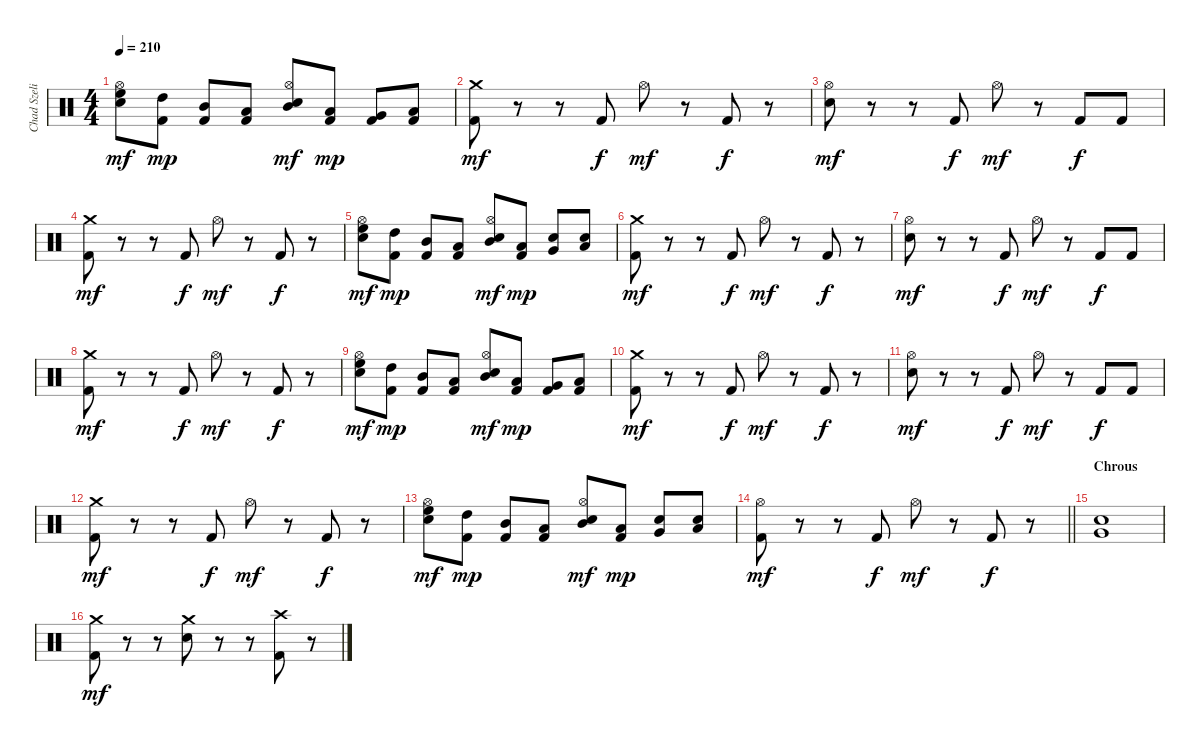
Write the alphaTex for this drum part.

\track ("Chad Szeliga" "Chad Szeli") {instrument percussion}
\staff {score}
\articulation defaults
\ts (4 4)
\tempo 210
\clef neutral
\ks c
("Snare (hit) 2" "High Floor Tom (hit)" "Hi-Hat (open)").8{dy mf} ("Kick (hit) 2" "High Tom (hit)").8{dy mp} ("Kick (hit) 2" "Mid Tom (hit)").8 ("Kick (hit) 2" "Low Tom (hit)").8 ("Snare (hit) 2" "Mid Tom (hit)" "Hi-Hat (open)").8{dy mf} ("Kick (hit) 2" "Low Tom (hit)").8{dy mp} ("Kick (hit) 2" "Very Low Tom (hit)").8 ("Kick (hit) 2" "Low Floor Tom (hit)").8 |
("Kick (hit) 2" "Crash medium (hit)").8{dy mf} r.8 r.8 "Kick (hit) 2".8{dy f} "Hi-Hat (open)".8{dy mf} r.8 "Kick (hit) 2".8{dy f} r.8 |
("Snare (hit) 2" "Hi-Hat (open)").8{dy mf} r.8 r.8 "Kick (hit) 2".8{dy f} "Hi-Hat (open)".8{dy mf} r.8 "Kick (hit) 2".8{dy f} "Kick (hit) 2".8 |
("Kick (hit) 2" "Crash medium (hit)").8{dy mf} r.8 r.8 "Kick (hit) 2".8{dy f} "Hi-Hat (open)".8{dy mf} r.8 "Kick (hit) 2".8{dy f} r.8 |
("Snare (hit) 2" "High Floor Tom (hit)" "Hi-Hat (open)").8{dy mf} ("Kick (hit) 2" "High Tom (hit)").8{dy mp} ("Kick (hit) 2" "Mid Tom (hit)").8 ("Kick (hit) 2" "Low Tom (hit)").8 ("Snare (hit) 2" "Mid Tom (hit)" "Hi-Hat (open)").8{dy mf} ("Kick (hit) 2" "Low Tom (hit)").8{dy mp} ("Snare (hit) 2" "Very Low Tom (hit)").8 ("Snare (hit) 2" "Low Floor Tom (hit)").8 |
("Kick (hit) 2" "Crash medium (hit)").8{dy mf} r.8 r.8 "Kick (hit) 2".8{dy f} "Hi-Hat (open)".8{dy mf} r.8 "Kick (hit) 2".8{dy f} r.8 |
("Snare (hit) 2" "Hi-Hat (open)").8{dy mf} r.8 r.8 "Kick (hit) 2".8{dy f} "Hi-Hat (open)".8{dy mf} r.8 "Kick (hit) 2".8{dy f} "Kick (hit) 2".8 |
("Kick (hit) 2" "Crash medium (hit)").8{dy mf} r.8 r.8 "Kick (hit) 2".8{dy f} "Hi-Hat (open)".8{dy mf} r.8 "Kick (hit) 2".8{dy f} r.8 |
("Snare (hit) 2" "High Floor Tom (hit)" "Hi-Hat (open)").8{dy mf} ("Kick (hit) 2" "High Tom (hit)").8{dy mp} ("Kick (hit) 2" "Mid Tom (hit)").8 ("Kick (hit) 2" "Low Tom (hit)").8 ("Snare (hit) 2" "Mid Tom (hit)" "Hi-Hat (open)").8{dy mf} ("Kick (hit) 2" "Low Tom (hit)").8{dy mp} ("Kick (hit) 2" "Very Low Tom (hit)").8 ("Kick (hit) 2" "Low Floor Tom (hit)").8 |
("Kick (hit) 2" "Crash medium (hit)").8{dy mf} r.8 r.8 "Kick (hit) 2".8{dy f} "Hi-Hat (open)".8{dy mf} r.8 "Kick (hit) 2".8{dy f} r.8 |
("Snare (hit) 2" "Hi-Hat (open)").8{dy mf} r.8 r.8 "Kick (hit) 2".8{dy f} "Hi-Hat (open)".8{dy mf} r.8 "Kick (hit) 2".8{dy f} "Kick (hit) 2".8 |
("Kick (hit) 2" "Crash medium (hit)").8{dy mf} r.8 r.8 "Kick (hit) 2".8{dy f} "Hi-Hat (open)".8{dy mf} r.8 "Kick (hit) 2".8{dy f} r.8 |
("Snare (hit) 2" "High Floor Tom (hit)" "Hi-Hat (open)").8{dy mf} ("Kick (hit) 2" "High Tom (hit)").8{dy mp} ("Kick (hit) 2" "Mid Tom (hit)").8 ("Kick (hit) 2" "Low Tom (hit)").8 ("Snare (hit) 2" "Mid Tom (hit)" "Hi-Hat (open)").8{dy mf} ("Kick (hit) 2" "Low Tom (hit)").8{dy mp} ("Snare (hit) 2" "Very Low Tom (hit)").8 ("Snare (hit) 2" "Low Floor Tom (hit)").8 |
\barLineRight lightlight
("Kick (hit) 2" "Hi-Hat (open)").8{dy mf} r.8 r.8 "Kick (hit) 2".8{dy f} "Hi-Hat (open)".8{dy mf} r.8 "Kick (hit) 2".8{dy f} r.8 |
\section ("" "Chrous")
("Snare (hit) 2" "Very Low Tom (hit)").1 |
("Kick (hit) 2" "Crash medium (hit)").8{dy mf} r.8 r.8 ("Snare (hit) 2" "Crash medium (hit)").8 r.8 r.8 ("Kick (hit) 2" "Crash high (hit)").8 r.8
